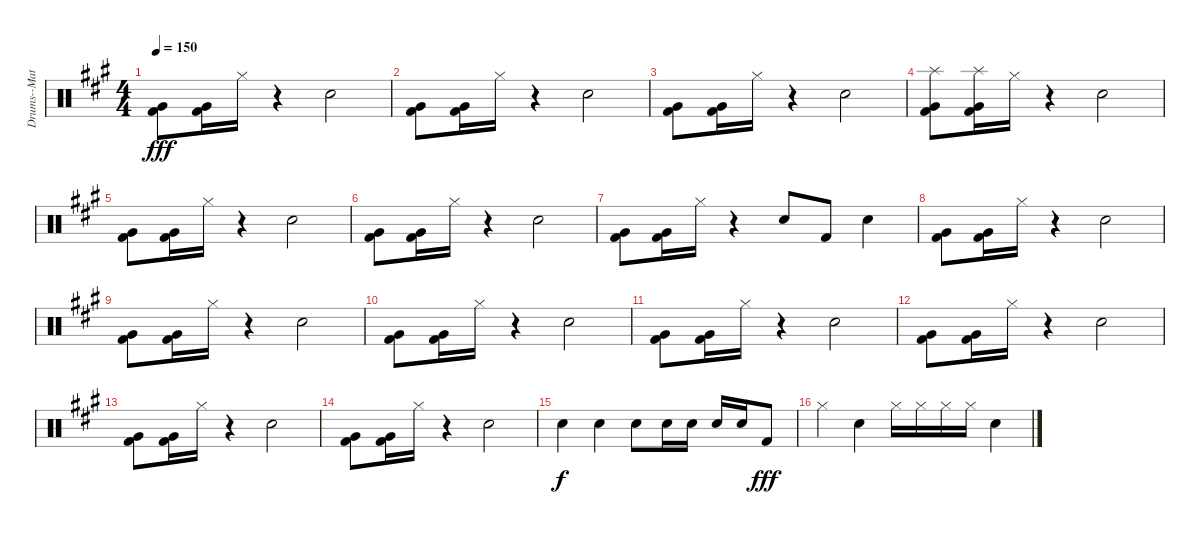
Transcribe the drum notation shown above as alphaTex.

\track ("Drums--Matt Whalen" "Drums--Mat") {instrument percussion}
\staff {score}
\articulation defaults
\ts (4 4)
\tempo 150
\clef neutral
\ks a
("Kick (hit) 2" "Very Low Tom (hit)").8{dy fff} ("Kick (hit) 2" "Very Low Tom (hit)").16 "Hi-Hat (closed)".16 r.4 "Snare (hit) 2".2 |
("Kick (hit) 2" "Very Low Tom (hit)").8 ("Kick (hit) 2" "Very Low Tom (hit)").16 "Hi-Hat (closed)".16 r.4 "Snare (hit) 2".2 |
("Kick (hit) 2" "Very Low Tom (hit)").8 ("Kick (hit) 2" "Very Low Tom (hit)").16 "Hi-Hat (closed)".16 r.4 "Snare (hit) 2".2 |
("Splash (hit)" "Kick (hit) 2" "Very Low Tom (hit)").8 ("Splash (hit)" "Kick (hit) 2" "Very Low Tom (hit)").16 "Hi-Hat (closed)".16 r.4 "Snare (hit) 2".2 |
("Kick (hit) 2" "Very Low Tom (hit)").8 ("Kick (hit) 2" "Very Low Tom (hit)").16 "Hi-Hat (closed)".16 r.4 "Snare (hit) 2".2 |
("Kick (hit) 2" "Very Low Tom (hit)").8 ("Kick (hit) 2" "Very Low Tom (hit)").16 "Hi-Hat (closed)".16 r.4 "Snare (hit) 2".2 |
("Kick (hit) 2" "Very Low Tom (hit)").8 ("Kick (hit) 2" "Very Low Tom (hit)").16 "Hi-Hat (closed)".16 r.4 "Snare (hit) 2".8 "Kick (hit) 2".8 "Snare (hit) 2".4 |
("Kick (hit) 2" "Very Low Tom (hit)").8 ("Kick (hit) 2" "Very Low Tom (hit)").16 "Hi-Hat (closed)".16 r.4 "Snare (hit) 2".2 |
("Kick (hit) 2" "Very Low Tom (hit)").8 ("Kick (hit) 2" "Very Low Tom (hit)").16 "Hi-Hat (closed)".16 r.4 "Snare (hit) 2".2 |
("Kick (hit) 2" "Very Low Tom (hit)").8 ("Kick (hit) 2" "Very Low Tom (hit)").16 "Hi-Hat (closed)".16 r.4 "Snare (hit) 2".2 |
("Kick (hit) 2" "Very Low Tom (hit)").8 ("Kick (hit) 2" "Very Low Tom (hit)").16 "Hi-Hat (closed)".16 r.4 "Snare (hit) 2".2 |
("Kick (hit) 2" "Very Low Tom (hit)").8 ("Kick (hit) 2" "Very Low Tom (hit)").16 "Hi-Hat (closed)".16 r.4 "Snare (hit) 2".2 |
("Kick (hit) 2" "Very Low Tom (hit)").8 ("Kick (hit) 2" "Very Low Tom (hit)").16 "Hi-Hat (closed)".16 r.4 "Snare (hit) 2".2 |
("Kick (hit) 2" "Very Low Tom (hit)").8 ("Kick (hit) 2" "Very Low Tom (hit)").16 "Hi-Hat (closed)".16 r.4 "Snare (hit) 2".2 |
"Snare (hit) 2".4{dy f} "Snare (hit) 2".4 "Snare (hit) 2".8 "Snare (hit) 2".16 "Snare (hit) 2".16 "Snare (hit) 2".16 "Snare (hit) 2".16 "Kick (hit) 2".8{dy fff} |
"Hi-Hat (closed)".4 "Snare (hit) 2".4 "Hi-Hat (closed)".16 "Hi-Hat (closed)".16 "Hi-Hat (closed)".16 "Hi-Hat (closed)".16 "Snare (hit) 2".4
